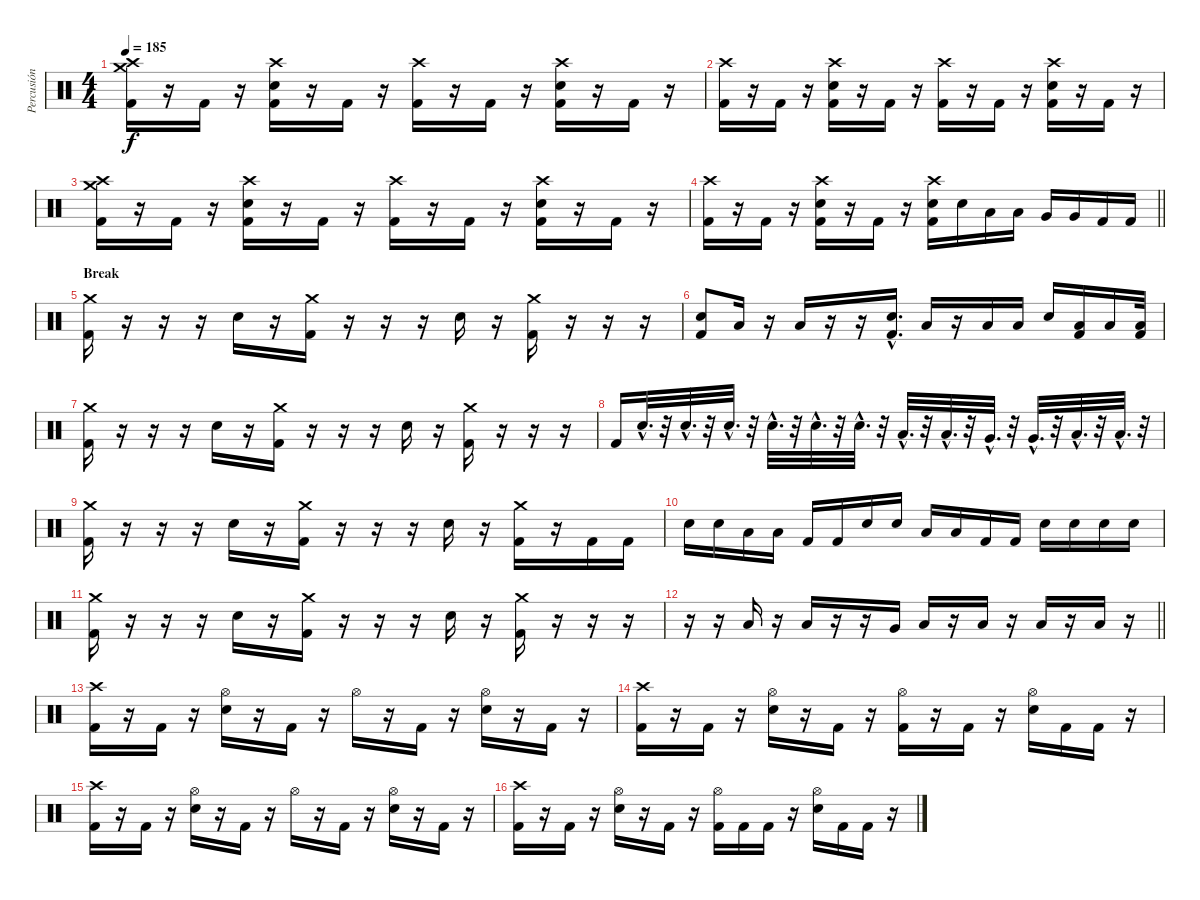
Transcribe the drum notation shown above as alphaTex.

\track ("Percusión" "Percusión") {instrument percussion}
\staff {score}
\articulation defaults
\ts (4 4)
\tempo 185
\clef neutral
\ks c
("Crash high (hit)" "Crash medium (hit)" "Kick (hit) 2").16{dy f} r.16 "Kick (hit) 2".16 r.16 ("Crash high (hit)" "Electric Snare (hit)" "Kick (hit) 2").16 r.16 "Kick (hit) 2".16 r.16 ("Crash high (hit)" "Kick (hit) 2").16 r.16 "Kick (hit) 2".16 r.16 ("Crash high (hit)" "Electric Snare (hit)" "Kick (hit) 2").16 r.16 "Kick (hit) 2".16 r.16 |
("Crash high (hit)" "Kick (hit) 2").16 r.16 "Kick (hit) 2".16 r.16 ("Crash high (hit)" "Electric Snare (hit)" "Kick (hit) 2").16 r.16 "Kick (hit) 2".16 r.16 ("Crash high (hit)" "Kick (hit) 2").16 r.16 "Kick (hit) 2".16 r.16 ("Crash high (hit)" "Electric Snare (hit)" "Kick (hit) 2").16 r.16 "Kick (hit) 2".16 r.16 |
("Crash high (hit)" "Crash medium (hit)" "Kick (hit) 2").16 r.16 "Kick (hit) 2".16 r.16 ("Crash high (hit)" "Electric Snare (hit)" "Kick (hit) 2").16 r.16 "Kick (hit) 2".16 r.16 ("Crash high (hit)" "Kick (hit) 2").16 r.16 "Kick (hit) 2".16 r.16 ("Crash high (hit)" "Electric Snare (hit)" "Kick (hit) 2").16 r.16 "Kick (hit) 2".16 r.16 |
\barLineRight lightlight
("Crash high (hit)" "Kick (hit) 2").16 r.16 "Kick (hit) 2".16 r.16 ("Crash high (hit)" "Electric Snare (hit)" "Kick (hit) 2").16 r.16 "Kick (hit) 2".16 r.16 ("Crash high (hit)" "Electric Snare (hit)" "Kick (hit) 2").16 "Electric Snare (hit)".16 "Low Tom (hit)".16 "Low Tom (hit)".16 "Very Low Tom (hit)".16 "Very Low Tom (hit)".16 "Kick (hit) 2".16 "Kick (hit) 2".16 |
\section ("" "Break")
("Crash medium (hit)" "Kick (hit) 2").16 r.16 r.16 r.16 "Electric Snare (hit)".16 r.16 ("Crash medium (hit)" "Kick (hit) 2").16 r.16 r.16 r.16 "Electric Snare (hit)".16 r.16 ("Crash medium (hit)" "Kick (hit) 2").16 r.16 r.16 r.16 |
("Snare (hit) 2" "Kick (hit) 2").8 "Low Floor Tom (hit)".16 r.16 "Low Floor Tom (hit)".16 r.16 r.16 ("Snare (hit) 2"{hac} "Kick (hit) 2"{hac}).16{d} "Low Floor Tom (hit)".16 r.16 "Low Floor Tom (hit)".16 "Low Floor Tom (hit)".16 "Snare (hit) 2".16 ("Low Floor Tom (hit)" "Kick (hit) 2").16 "Low Floor Tom (hit)".16 ("Low Floor Tom (hit)" "Kick (hit) 2").32 |
("Crash medium (hit)" "Kick (hit) 2").16 r.16 r.16 r.16 "Electric Snare (hit)".16 r.16 ("Crash medium (hit)" "Kick (hit) 2").16 r.16 r.16 r.16 "Electric Snare (hit)".16 r.16 ("Crash medium (hit)" "Kick (hit) 2").16 r.16 r.16 r.16 |
"Kick (hit) 2".16 "Electric Snare (hit)"{hac}.32{d} r.32 "Electric Snare (hit)"{hac}.32{d} r.32 "Electric Snare (hit)"{hac}.32{d} r.32 "Electric Snare (hit)"{hac}.32{d} r.32 "Electric Snare (hit)"{hac}.32{d} r.32 "Electric Snare (hit)"{hac}.32{d} r.32 "Low Tom (hit)"{hac}.32{d} r.32 "Low Tom (hit)"{hac}.32{d} r.32 "Very Low Tom (hit)"{hac}.32{d} r.32 "Very Low Tom (hit)"{hac}.32{d} r.32 "Low Floor Tom (hit)"{hac}.32{d} r.32 "Low Floor Tom (hit)"{hac}.32{d} r.32 |
("Crash medium (hit)" "Kick (hit) 2").16 r.16 r.16 r.16 "Electric Snare (hit)".16 r.16 ("Crash medium (hit)" "Kick (hit) 2").16 r.16 r.16 r.16 "Electric Snare (hit)".16 r.16 ("Crash medium (hit)" "Kick (hit) 2").16 r.16 "Kick (hit) 2".16 "Kick (hit) 2".16 |
"Electric Snare (hit)".16 "Electric Snare (hit)".16 "Low Floor Tom (hit)".16 "Low Floor Tom (hit)".16 "Kick (hit) 2".16 "Kick (hit) 2".16 "Electric Snare (hit)".16 "Electric Snare (hit)".16 "Low Floor Tom (hit)".16 "Low Floor Tom (hit)".16 "Kick (hit) 2".16 "Kick (hit) 2".16 "Electric Snare (hit)".16 "Electric Snare (hit)".16 "Electric Snare (hit)".16 "Electric Snare (hit)".16 |
("Crash medium (hit)" "Kick (hit) 2").16 r.16 r.16 r.16 "Electric Snare (hit)".16 r.16 ("Crash medium (hit)" "Kick (hit) 2").16 r.16 r.16 r.16 "Electric Snare (hit)".16 r.16 ("Crash medium (hit)" "Kick (hit) 2").16 r.16 r.16 r.16 |
\barLineRight lightlight
r.16 r.16 "Low Tom (hit)".16 r.16 "Low Tom (hit)".16 r.16 r.16 "Very Low Tom (hit)".16 "Low Floor Tom (hit)".16 r.16 "Low Floor Tom (hit)".16 r.16 "Low Floor Tom (hit)".16 r.16 "Low Floor Tom (hit)".16 r.16 |
("Crash high (hit)" "Kick (hit) 2").16 r.16 "Kick (hit) 2".16 r.16 ("Hi-Hat (open)" "Electric Snare (hit)").16 r.16 "Kick (hit) 2".16 r.16 "Hi-Hat (open)".16 r.16 "Kick (hit) 2".16 r.16 ("Hi-Hat (open)" "Electric Snare (hit)").16 r.16 "Kick (hit) 2".16 r.16 |
("Crash high (hit)" "Kick (hit) 2").16 r.16 "Kick (hit) 2".16 r.16 ("Hi-Hat (open)" "Electric Snare (hit)").16 r.16 "Kick (hit) 2".16 r.16 ("Hi-Hat (open)" "Kick (hit) 2").16 r.16 "Kick (hit) 2".16 r.16 ("Hi-Hat (open)" "Electric Snare (hit)").16 "Kick (hit) 2".16 "Kick (hit) 2".16 r.16 |
("Crash high (hit)" "Kick (hit) 2").16 r.16 "Kick (hit) 2".16 r.16 ("Hi-Hat (open)" "Electric Snare (hit)").16 r.16 "Kick (hit) 2".16 r.16 "Hi-Hat (open)".16 r.16 "Kick (hit) 2".16 r.16 ("Hi-Hat (open)" "Electric Snare (hit)").16 r.16 "Kick (hit) 2".16 r.16 |
("Crash high (hit)" "Kick (hit) 2").16 r.16 "Kick (hit) 2".16 r.16 ("Hi-Hat (open)" "Electric Snare (hit)").16 r.16 "Kick (hit) 2".16 r.16 ("Hi-Hat (open)" "Kick (hit) 2").16 "Kick (hit) 2".16 "Kick (hit) 2".16 r.16 ("Hi-Hat (open)" "Electric Snare (hit)").16 "Kick (hit) 2".16 "Kick (hit) 2".16 r.16
